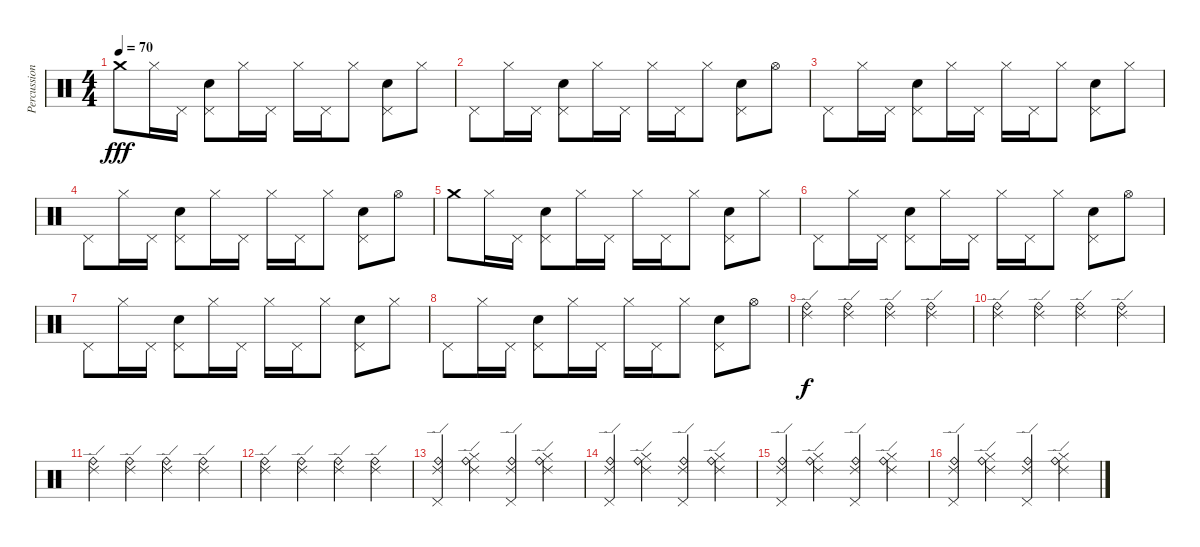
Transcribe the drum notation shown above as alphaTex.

\track ("Percussion" "Percussion") {instrument percussion}
\staff {score}
\articulation defaults
\ts (4 4)
\tempo 70
\clef neutral
\ks c "Crash medium (hit)".8{dy fff} "Hi-Hat (closed)".16 "Pedal Hi-Hat (hit)".16
("Pedal Hi-Hat (hit)" "Electric Snare (hit)").8 "Hi-Hat (closed)".16 "Pedal Hi-Hat (hit)".16 "Hi-Hat (closed)".16 "Pedal Hi-Hat (hit)".16 "Hi-Hat (closed)".8 ("Pedal Hi-Hat (hit)" "Electric Snare (hit)").8 "Hi-Hat (closed)".8 |
"Pedal Hi-Hat (hit)".8 "Hi-Hat (closed)".16 "Pedal Hi-Hat (hit)".16 ("Pedal Hi-Hat (hit)" "Electric Snare (hit)").8 "Hi-Hat (closed)".16 "Pedal Hi-Hat (hit)".16 "Hi-Hat (closed)".16 "Pedal Hi-Hat (hit)".16 "Hi-Hat (closed)".8 ("Pedal Hi-Hat (hit)" "Electric Snare (hit)").8 "Hi-Hat (open)".8 |
"Pedal Hi-Hat (hit)".8 "Hi-Hat (closed)".16 "Pedal Hi-Hat (hit)".16 ("Pedal Hi-Hat (hit)" "Electric Snare (hit)").8 "Hi-Hat (closed)".16 "Pedal Hi-Hat (hit)".16 "Hi-Hat (closed)".16 "Pedal Hi-Hat (hit)".16 "Hi-Hat (closed)".8 ("Pedal Hi-Hat (hit)" "Electric Snare (hit)").8 "Hi-Hat (closed)".8 |
"Pedal Hi-Hat (hit)".8 "Hi-Hat (closed)".16 "Pedal Hi-Hat (hit)".16 ("Pedal Hi-Hat (hit)" "Electric Snare (hit)").8 "Hi-Hat (closed)".16 "Pedal Hi-Hat (hit)".16 "Hi-Hat (closed)".16 "Pedal Hi-Hat (hit)".16 "Hi-Hat (closed)".8 ("Pedal Hi-Hat (hit)" "Electric Snare (hit)").8 "Hi-Hat (open)".8 |
"Crash medium (hit)".8 "Hi-Hat (closed)".16 "Pedal Hi-Hat (hit)".16 ("Pedal Hi-Hat (hit)" "Electric Snare (hit)").8 "Hi-Hat (closed)".16 "Pedal Hi-Hat (hit)".16 "Hi-Hat (closed)".16 "Pedal Hi-Hat (hit)".16 "Hi-Hat (closed)".8 ("Pedal Hi-Hat (hit)" "Electric Snare (hit)").8 "Hi-Hat (closed)".8 |
"Pedal Hi-Hat (hit)".8 "Hi-Hat (closed)".16 "Pedal Hi-Hat (hit)".16 ("Pedal Hi-Hat (hit)" "Electric Snare (hit)").8 "Hi-Hat (closed)".16 "Pedal Hi-Hat (hit)".16 "Hi-Hat (closed)".16 "Pedal Hi-Hat (hit)".16 "Hi-Hat (closed)".8 ("Pedal Hi-Hat (hit)" "Electric Snare (hit)").8 "Hi-Hat (open)".8 |
"Pedal Hi-Hat (hit)".8 "Hi-Hat (closed)".16 "Pedal Hi-Hat (hit)".16 ("Pedal Hi-Hat (hit)" "Electric Snare (hit)").8 "Hi-Hat (closed)".16 "Pedal Hi-Hat (hit)".16 "Hi-Hat (closed)".16 "Pedal Hi-Hat (hit)".16 "Hi-Hat (closed)".8 ("Pedal Hi-Hat (hit)" "Electric Snare (hit)").8 "Hi-Hat (closed)".8 |
"Pedal Hi-Hat (hit)".8 "Hi-Hat (closed)".16 "Pedal Hi-Hat (hit)".16 ("Pedal Hi-Hat (hit)" "Electric Snare (hit)").8 "Hi-Hat (closed)".16 "Pedal Hi-Hat (hit)".16 "Hi-Hat (closed)".16 "Pedal Hi-Hat (hit)".16 "Hi-Hat (closed)".8 ("Pedal Hi-Hat (hit)" "Electric Snare (hit)").8 "Hi-Hat (open)".8 |
("Ride (edge) 2" "Ride (bell)").4{dy f} ("Ride (edge) 2" "Ride (bell)").4 ("Ride (edge) 2" "Ride (bell)").4 ("Ride (edge) 2" "Ride (bell)").4 |
("Ride (edge) 2" "Ride (bell)").4 ("Ride (edge) 2" "Ride (bell)").4 ("Ride (edge) 2" "Ride (bell)").4 ("Ride (edge) 2" "Ride (bell)").4 |
("Ride (edge) 2" "Ride (bell)").4 ("Ride (edge) 2" "Ride (bell)").4 ("Ride (edge) 2" "Ride (bell)").4 ("Ride (edge) 2" "Ride (bell)").4 |
("Ride (edge) 2" "Ride (bell)").4 ("Ride (edge) 2" "Ride (bell)").4 ("Ride (edge) 2" "Ride (bell)").4 ("Ride (edge) 2" "Ride (bell)").4 |
("Ride (edge) 2" "Ride (bell)" "Pedal Hi-Hat (hit)").4 ("Ride (edge) 2" "Ride (bell)" "Hi-Hat (closed)").4 ("Ride (edge) 2" "Ride (bell)" "Pedal Hi-Hat (hit)").4 ("Ride (edge) 2" "Ride (bell)" "Hi-Hat (closed)").4 |
("Ride (edge) 2" "Ride (bell)" "Pedal Hi-Hat (hit)").4 ("Ride (edge) 2" "Ride (bell)" "Hi-Hat (closed)").4 ("Ride (edge) 2" "Ride (bell)" "Pedal Hi-Hat (hit)").4 ("Ride (edge) 2" "Ride (bell)" "Hi-Hat (closed)").4 |
("Ride (edge) 2" "Ride (bell)" "Pedal Hi-Hat (hit)").4 ("Ride (edge) 2" "Ride (bell)" "Hi-Hat (closed)").4 ("Ride (edge) 2" "Ride (bell)" "Pedal Hi-Hat (hit)").4 ("Ride (edge) 2" "Ride (bell)" "Hi-Hat (closed)").4 |
("Ride (edge) 2" "Ride (bell)" "Pedal Hi-Hat (hit)").4 ("Ride (edge) 2" "Ride (bell)" "Hi-Hat (closed)").4 ("Ride (edge) 2" "Ride (bell)" "Pedal Hi-Hat (hit)").4 ("Ride (edge) 2" "Ride (bell)" "Hi-Hat (closed)").4
